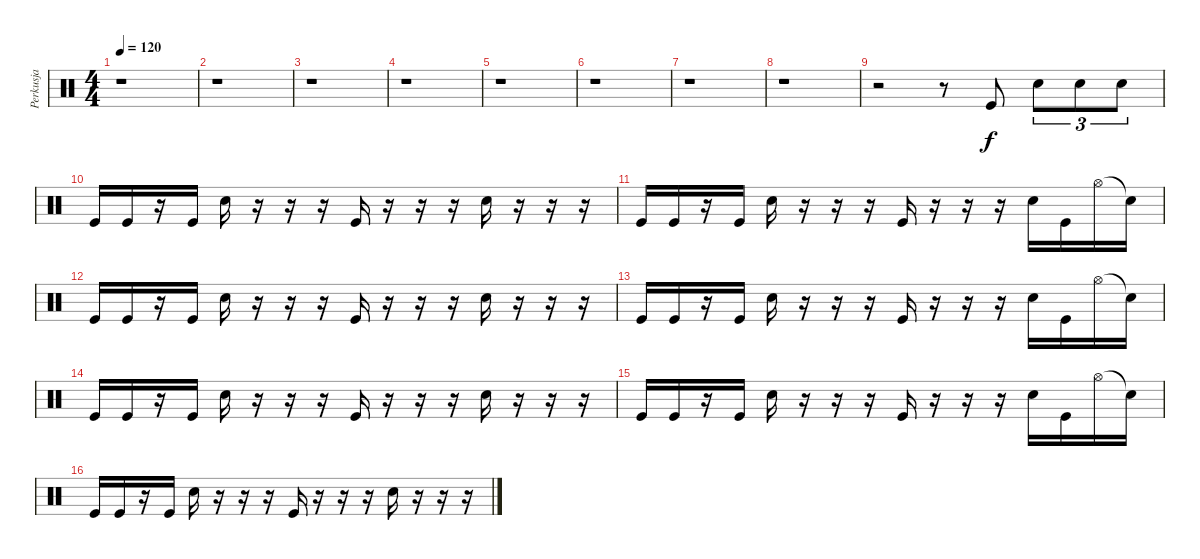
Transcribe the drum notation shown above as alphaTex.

\track ("Perkusja" "Perkusja") {instrument percussion}
\staff {score}
\articulation defaults
\ts (4 4)
\tempo 120
\clef neutral
\ks c
r.1{dy f} |
r.1 |
r.1 |
r.1 |
r.1 |
r.1 |
r.1 |
r.1 |
r.2 r.8 "Kick (hit)".8 "Snare (hit) 2".8{tu (3 2)} "Snare (hit) 2".8{tu (3 2)} "Snare (hit) 2".8{tu (3 2)} |
"Kick (hit)".16 "Kick (hit)".16 r.16 "Kick (hit)".16 "Snare (hit) 2".16 r.16 r.16 r.16 "Kick (hit)".16 r.16 r.16 r.16 "Snare (hit) 2".16 r.16 r.16 r.16 |
"Kick (hit)".16 "Kick (hit)".16 r.16 "Kick (hit)".16 "Snare (hit) 2".16 r.16 r.16 r.16 "Kick (hit)".16 r.16 r.16 r.16 "Snare (hit) 2".16 "Kick (hit)".16 "Hi-Hat (open)".16 "Snare (hit)"{t}.16 |
"Kick (hit)".16 "Kick (hit)".16 r.16 "Kick (hit)".16 "Snare (hit) 2".16 r.16 r.16 r.16 "Kick (hit)".16 r.16 r.16 r.16 "Snare (hit) 2".16 r.16 r.16 r.16 |
"Kick (hit)".16 "Kick (hit)".16 r.16 "Kick (hit)".16 "Snare (hit) 2".16 r.16 r.16 r.16 "Kick (hit)".16 r.16 r.16 r.16 "Snare (hit) 2".16 "Kick (hit)".16 "Hi-Hat (open)".16 "Snare (hit)"{t}.16 |
"Kick (hit)".16 "Kick (hit)".16 r.16 "Kick (hit)".16 "Snare (hit) 2".16 r.16 r.16 r.16 "Kick (hit)".16 r.16 r.16 r.16 "Snare (hit) 2".16 r.16 r.16 r.16 |
"Kick (hit)".16 "Kick (hit)".16 r.16 "Kick (hit)".16 "Snare (hit) 2".16 r.16 r.16 r.16 "Kick (hit)".16 r.16 r.16 r.16 "Snare (hit) 2".16 "Kick (hit)".16 "Hi-Hat (open)".16 "Snare (hit)"{t}.16 |
"Kick (hit)".16 "Kick (hit)".16 r.16 "Kick (hit)".16 "Snare (hit) 2".16 r.16 r.16 r.16 "Kick (hit)".16 r.16 r.16 r.16 "Snare (hit) 2".16 r.16 r.16 r.16
